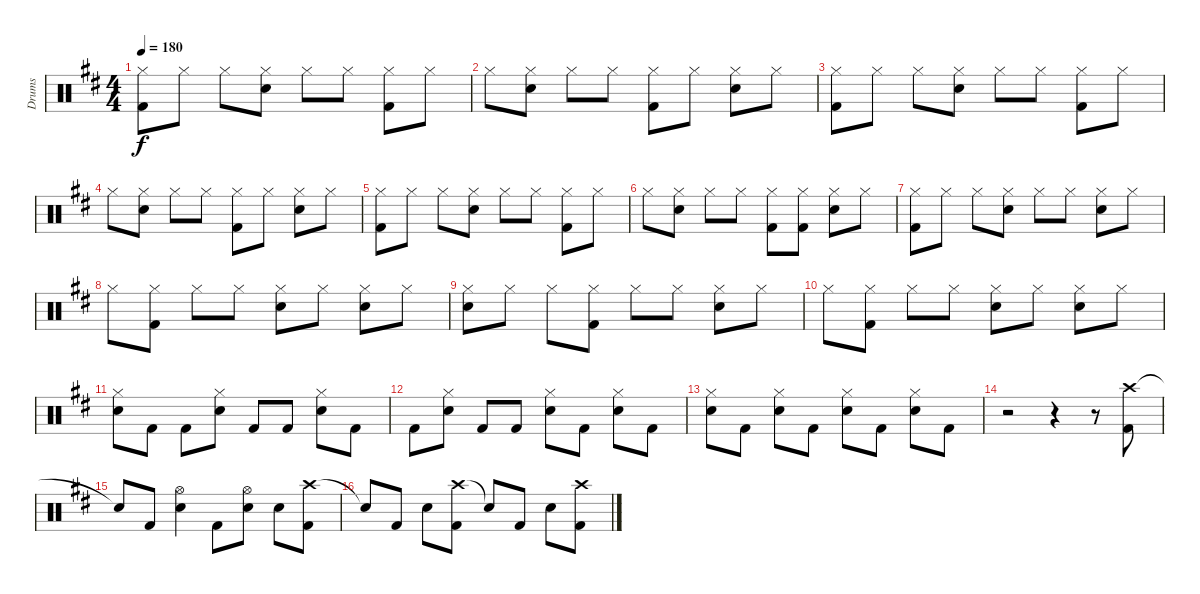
\track ("Drums" "Drums") {instrument percussion}
\staff {score}
\articulation defaults
\ts (4 4)
\tempo 180
\clef neutral
\ks bminor
("Hi-Hat (closed)" "Kick (hit) 2").8{dy f} "Hi-Hat (closed)".8 "Hi-Hat (closed)".8 ("Hi-Hat (closed)" "Electric Snare (hit)").8 "Hi-Hat (closed)".8 "Hi-Hat (closed)".8 ("Hi-Hat (closed)" "Kick (hit) 2").8 "Hi-Hat (closed)".8 |
"Hi-Hat (closed)".8 ("Hi-Hat (closed)" "Electric Snare (hit)").8 "Hi-Hat (closed)".8 "Hi-Hat (closed)".8 ("Hi-Hat (closed)" "Kick (hit) 2").8 "Hi-Hat (closed)".8 ("Hi-Hat (closed)" "Electric Snare (hit)").8 "Hi-Hat (closed)".8 |
("Hi-Hat (closed)" "Kick (hit) 2").8 "Hi-Hat (closed)".8 "Hi-Hat (closed)".8 ("Hi-Hat (closed)" "Electric Snare (hit)").8 "Hi-Hat (closed)".8 "Hi-Hat (closed)".8 ("Hi-Hat (closed)" "Kick (hit) 2").8 "Hi-Hat (closed)".8 |
"Hi-Hat (closed)".8 ("Hi-Hat (closed)" "Electric Snare (hit)").8 "Hi-Hat (closed)".8 "Hi-Hat (closed)".8 ("Hi-Hat (closed)" "Kick (hit) 2").8 "Hi-Hat (closed)".8 ("Hi-Hat (closed)" "Electric Snare (hit)").8 "Hi-Hat (closed)".8 |
("Hi-Hat (closed)" "Kick (hit) 2").8 "Hi-Hat (closed)".8 "Hi-Hat (closed)".8 ("Hi-Hat (closed)" "Electric Snare (hit)").8 "Hi-Hat (closed)".8 "Hi-Hat (closed)".8 ("Hi-Hat (closed)" "Kick (hit) 2").8 "Hi-Hat (closed)".8 |
"Hi-Hat (closed)".8 ("Hi-Hat (closed)" "Electric Snare (hit)").8 "Hi-Hat (closed)".8 "Hi-Hat (closed)".8 ("Hi-Hat (closed)" "Kick (hit) 2").8 ("Hi-Hat (closed)" "Kick (hit) 2").8 ("Hi-Hat (closed)" "Electric Snare (hit)").8 "Hi-Hat (closed)".8 |
("Hi-Hat (closed)" "Kick (hit) 2").8 "Hi-Hat (closed)".8 "Hi-Hat (closed)".8 ("Hi-Hat (closed)" "Electric Snare (hit)").8 "Hi-Hat (closed)".8 "Hi-Hat (closed)".8 ("Hi-Hat (closed)" "Electric Snare (hit)").8 "Hi-Hat (closed)".8 |
"Hi-Hat (closed)".8 ("Hi-Hat (closed)" "Kick (hit) 2").8 "Hi-Hat (closed)".8 "Hi-Hat (closed)".8 ("Hi-Hat (closed)" "Electric Snare (hit)").8 "Hi-Hat (closed)".8 ("Hi-Hat (closed)" "Electric Snare (hit)").8 "Hi-Hat (closed)".8 |
("Hi-Hat (closed)" "Electric Snare (hit)").8 "Hi-Hat (closed)".8 "Hi-Hat (closed)".8 ("Hi-Hat (closed)" "Kick (hit) 2").8 "Hi-Hat (closed)".8 "Hi-Hat (closed)".8 ("Hi-Hat (closed)" "Electric Snare (hit)").8 "Hi-Hat (closed)".8 |
"Hi-Hat (closed)".8 ("Hi-Hat (closed)" "Kick (hit) 2").8 "Hi-Hat (closed)".8 "Hi-Hat (closed)".8 ("Hi-Hat (closed)" "Electric Snare (hit)").8 "Hi-Hat (closed)".8 ("Hi-Hat (closed)" "Electric Snare (hit)").8 "Hi-Hat (closed)".8 |
("Hi-Hat (closed)" "Electric Snare (hit)").8 "Kick (hit) 2".8 "Kick (hit) 2".8 ("Hi-Hat (closed)" "Electric Snare (hit)").8 "Kick (hit) 2".8 "Kick (hit) 2".8 ("Hi-Hat (closed)" "Electric Snare (hit)").8 "Kick (hit) 2".8 |
"Kick (hit) 2".8 ("Hi-Hat (closed)" "Electric Snare (hit)").8 "Kick (hit) 2".8 "Kick (hit) 2".8 ("Hi-Hat (closed)" "Electric Snare (hit)").8 "Kick (hit) 2".8 ("Hi-Hat (closed)" "Electric Snare (hit)").8 "Kick (hit) 2".8 |
("Hi-Hat (closed)" "Electric Snare (hit)").8 "Kick (hit) 2".8 ("Hi-Hat (closed)" "Electric Snare (hit)").8 "Kick (hit) 2".8 ("Hi-Hat (closed)" "Electric Snare (hit)").8 "Kick (hit) 2".8 ("Hi-Hat (closed)" "Electric Snare (hit)").8 "Kick (hit) 2".8 |
r.2 r.4 r.8 ("Crash high (hit)" "Kick (hit) 2").8 |
"Snare (hit)"{t}.8 "Kick (hit) 2".8 ("Hi-Hat (open)" "Electric Snare (hit)").4 "Kick (hit) 2".8 ("Hi-Hat (open)" "Electric Snare (hit)").8 "Electric Snare (hit)".8 ("Crash high (hit)" "Kick (hit) 2").8 |
"Snare (hit)"{t}.8 "Kick (hit) 2".8 "Electric Snare (hit)".8 ("Crash high (hit)" "Kick (hit) 2").8 "Snare (hit)"{t}.8 "Kick (hit) 2".8 "Electric Snare (hit)".8 ("Crash high (hit)" "Kick (hit) 2").8
